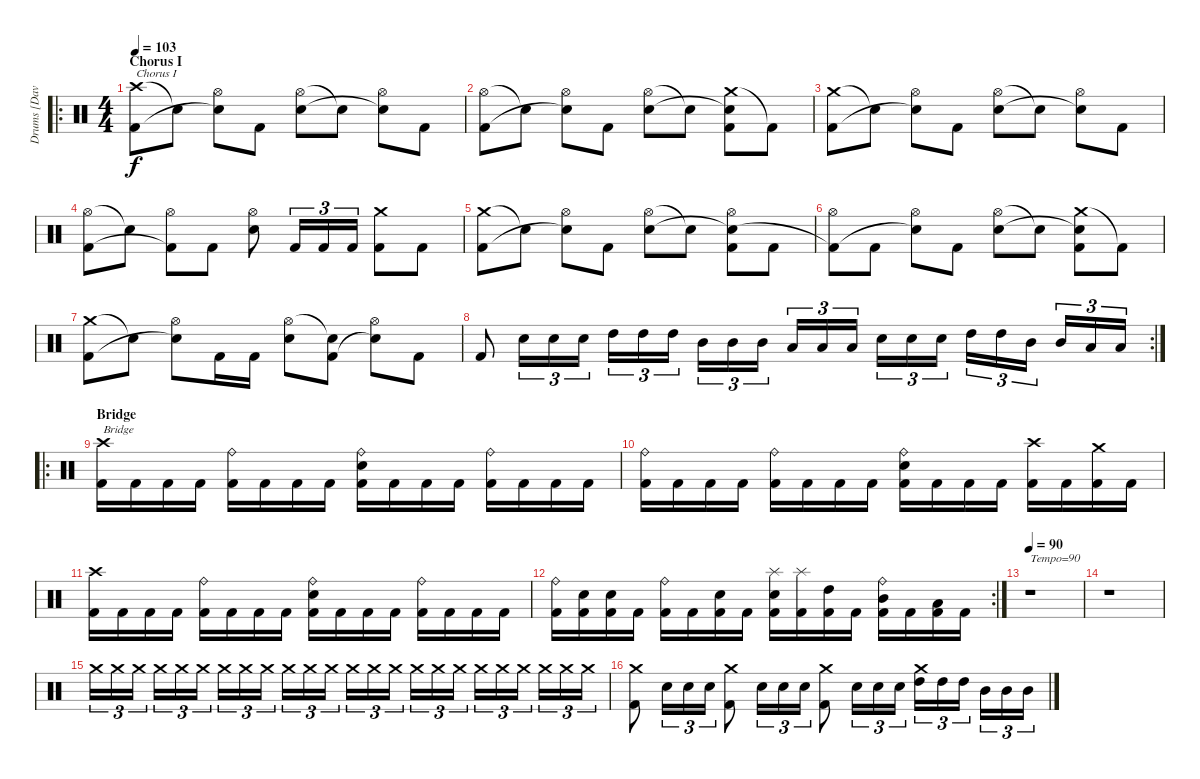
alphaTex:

\track ("Drums [Dave Culross]" "Drums [Dav") {instrument percussion}
\staff {score}
\articulation defaults
\ro
\ts (4 4)
\section ("" "Chorus I")
\tempo 103
\clef neutral
\ks c
("Crash high (hit)" "Kick (hit) 2").8{txt "Chorus I" dy f} "Snare (hit)"{t}.8 ("Hi-Hat (open)" "Snare (hit)"{t}).8 "Kick (hit) 2".8 ("Hi-Hat (open)" "Electric Snare (hit)").8 "Snare (hit)"{t}.8 ("Hi-Hat (open)" "Snare (hit)"{t}).8 "Kick (hit) 2".8 |
("Hi-Hat (open)" "Kick (hit) 2").8 "Snare (hit)"{t}.8 ("Hi-Hat (open)" "Snare (hit)"{t}).8 "Kick (hit) 2".8 ("Hi-Hat (open)" "Electric Snare (hit)").8 "Snare (hit)"{t}.8 ("Crash medium (hit)" "Snare (hit)"{t} "Kick (hit) 2").8 "Kick (hit) 2"{t}.8 |
("Crash medium (hit)" "Kick (hit) 2").8 "Snare (hit)"{t}.8 ("Hi-Hat (open)" "Snare (hit)"{t}).8 "Kick (hit) 2".8 ("Hi-Hat (open)" "Electric Snare (hit)").8 "Snare (hit)"{t}.8 ("Hi-Hat (open)" "Snare (hit)"{t}).8 "Kick (hit) 2".8 |
("Hi-Hat (open)" "Kick (hit) 2").8 "Snare (hit)"{t}.8 ("Hi-Hat (open)" "Kick (hit) 2"{t}).8 "Kick (hit) 2".8 ("Hi-Hat (open)" "Electric Snare (hit)").8 "Kick (hit) 2".16{tu (3 2)} "Kick (hit) 2".16{tu (3 2)} "Kick (hit) 2".16{tu (3 2)} ("Crash medium (hit)" "Kick (hit) 2").8 "Kick (hit) 2".8 |
("Crash medium (hit)" "Kick (hit) 2").8 "Snare (hit)"{t}.8 ("Hi-Hat (open)" "Snare (hit)"{t}).8 "Kick (hit) 2".8 ("Hi-Hat (open)" "Electric Snare (hit)").8 "Snare (hit)"{t}.8 ("Hi-Hat (open)" "Snare (hit)"{t} "Kick (hit) 2").8 "Kick (hit) 2".8 |
("Hi-Hat (open)" "Kick (hit) 2"{t}).8 "Kick (hit) 2".8 ("Hi-Hat (open)" "Snare (hit)"{t}).8 "Kick (hit) 2".8 ("Hi-Hat (open)" "Electric Snare (hit)").8 "Snare (hit)"{t}.8 ("Crash medium (hit)" "Snare (hit)"{t} "Kick (hit) 2").8 "Kick (hit) 2"{t}.8 |
("Crash medium (hit)" "Kick (hit) 2").8 "Snare (hit)"{t}.8 ("Hi-Hat (open)" "Snare (hit)"{t}).8 "Kick (hit) 2".16 "Kick (hit) 2".16 ("Hi-Hat (open)" "Electric Snare (hit)").8 ("Snare (hit)"{t} "Kick (hit) 2").8 ("Hi-Hat (open)" "Snare (hit)"{t}).8 "Kick (hit) 2".8 |
\rc 2 "Kick (hit) 2".8 "Electric Snare (hit)".16{tu (3 2)} "Electric Snare (hit)".16{tu (3 2)} "Electric Snare (hit)".16{tu (3 2)} "High Tom (hit)".16{tu (3 2)} "High Tom (hit)".16{tu (3 2)} "High Tom (hit)".16{tu (3 2)} "Mid Tom (hit)".16{tu (3 2)} "Mid Tom (hit)".16{tu (3 2)} "Mid Tom (hit)".16{tu (3 2)} "Low Tom (hit)".16{tu (3 2)} "Low Tom (hit)".16{tu (3 2)} "Low Tom (hit)".16{tu (3 2)} "Electric Snare (hit)".16{tu (3 2)} "Electric Snare (hit)".16{tu (3 2)} "Electric Snare (hit)".16{tu (3 2)} "High Tom (hit)".16{tu (3 2)} "High Tom (hit)".16{tu (3 2)} "Mid Tom (hit)".16{tu (3 2)} "Mid Tom (hit)".16{tu (3 2)} "Low Tom (hit)".16{tu (3 2)} "Low Tom (hit)".16{tu (3 2)}
|
\ro
\section ("" "Bridge")
("Crash high (hit)" "Kick (hit) 2").16{txt "Bridge"} "Kick (hit) 2".16 "Kick (hit) 2".16 "Kick (hit) 2".16 ("Ride (bell)" "Kick (hit) 2").16 "Kick (hit) 2".16 "Kick (hit) 2".16 "Kick (hit) 2".16 ("Ride (bell)" "Electric Snare (hit)" "Kick (hit) 2").16 "Kick (hit) 2".16 "Kick (hit) 2".16 "Kick (hit) 2".16 ("Ride (bell)" "Kick (hit) 2").16 "Kick (hit) 2".16 "Kick (hit) 2".16 "Kick (hit) 2".16 |
("Ride (bell)" "Kick (hit) 2").16 "Kick (hit) 2".16 "Kick (hit) 2".16 "Kick (hit) 2".16 ("Ride (bell)" "Kick (hit) 2").16 "Kick (hit) 2".16 "Kick (hit) 2".16 "Kick (hit) 2".16 ("Ride (bell)" "Electric Snare (hit)" "Kick (hit) 2").16 "Kick (hit) 2".16 "Kick (hit) 2".16 "Kick (hit) 2".16 ("Crash high (hit)" "Kick (hit) 2").16 "Kick (hit) 2".16 ("Crash medium (hit)" "Kick (hit) 2").16 "Kick (hit) 2".16 |
("Crash high (hit)" "Kick (hit) 2").16 "Kick (hit) 2".16 "Kick (hit) 2".16 "Kick (hit) 2".16 ("Ride (bell)" "Kick (hit) 2").16 "Kick (hit) 2".16 "Kick (hit) 2".16 "Kick (hit) 2".16 ("Ride (bell)" "Electric Snare (hit)" "Kick (hit) 2").16 "Kick (hit) 2".16 "Kick (hit) 2".16 "Kick (hit) 2".16 ("Ride (bell)" "Kick (hit) 2").16 "Kick (hit) 2".16 "Kick (hit) 2".16 "Kick (hit) 2".16 |
\rc 2
("Ride (bell)" "Kick (hit) 2").16 ("Electric Snare (hit)" "Kick (hit) 2").16 ("Electric Snare (hit)" "Kick (hit) 2").16 "Kick (hit) 2".16 ("Ride (bell)" "Kick (hit) 2").16 "Kick (hit) 2".16 ("Electric Snare (hit)" "Kick (hit) 2").16 "Kick (hit) 2".16 ("Splash (hit)" "Electric Snare (hit)" "Kick (hit) 2").16 ("Splash (hit)" "Kick (hit) 2").16 ("High Tom (hit)" "Kick (hit) 2").16 "Kick (hit) 2".16 ("Ride (bell)" "Mid Tom (hit)" "Kick (hit) 2").16 "Kick (hit) 2".16 ("Low Tom (hit)" "Kick (hit) 2").16 "Kick (hit) 2".16 |
\tempo 90
r.1{txt "Tempo=90"} |
r.1 |
"Crash medium (hit)".16{tu (3 2)} "Crash medium (hit)".16{tu (3 2)} "Crash medium (hit)".16{tu (3 2)} "Crash medium (hit)".16{tu (3 2)} "Crash medium (hit)".16{tu (3 2)} "Crash medium (hit)".16{tu (3 2)} "Crash medium (hit)".16{tu (3 2)} "Crash medium (hit)".16{tu (3 2)} "Crash medium (hit)".16{tu (3 2)} "Crash medium (hit)".16{tu (3 2)} "Crash medium (hit)".16{tu (3 2)} "Crash medium (hit)".16{tu (3 2)} "Crash medium (hit)".16{tu (3 2)} "Crash medium (hit)".16{tu (3 2)} "Crash medium (hit)".16{tu (3 2)} "Crash medium (hit)".16{tu (3 2)} "Crash medium (hit)".16{tu (3 2)} "Crash medium (hit)".16{tu (3 2)} "Crash medium (hit)".16{tu (3 2)} "Crash medium (hit)".16{tu (3 2)} "Crash medium (hit)".16{tu (3 2)} "Crash medium (hit)".16{tu (3 2)} "Crash medium (hit)".16{tu (3 2)} "Crash medium (hit)".16{tu (3 2)} |
("Crash medium (hit)" "Kick (hit) 2").8 "Electric Snare (hit)".16{tu (3 2)} "Electric Snare (hit)".16{tu (3 2)} "Electric Snare (hit)".16{tu (3 2)} ("Crash medium (hit)" "Kick (hit) 2").8 "Electric Snare (hit)".16{tu (3 2)} "Electric Snare (hit)".16{tu (3 2)} "Electric Snare (hit)".16{tu (3 2)} ("Crash medium (hit)" "Kick (hit) 2").8 "Electric Snare (hit)".16{tu (3 2)} "Electric Snare (hit)".16{tu (3 2)} "Electric Snare (hit)".16{tu (3 2)} ("Crash medium (hit)" "High Tom (hit)").16{tu (3 2)} "High Tom (hit)".16{tu (3 2)} "High Tom (hit)".16{tu (3 2)} "Mid Tom (hit)".16{tu (3 2)} "Mid Tom (hit)".16{tu (3 2)} "Mid Tom (hit)".16{tu (3 2)}
